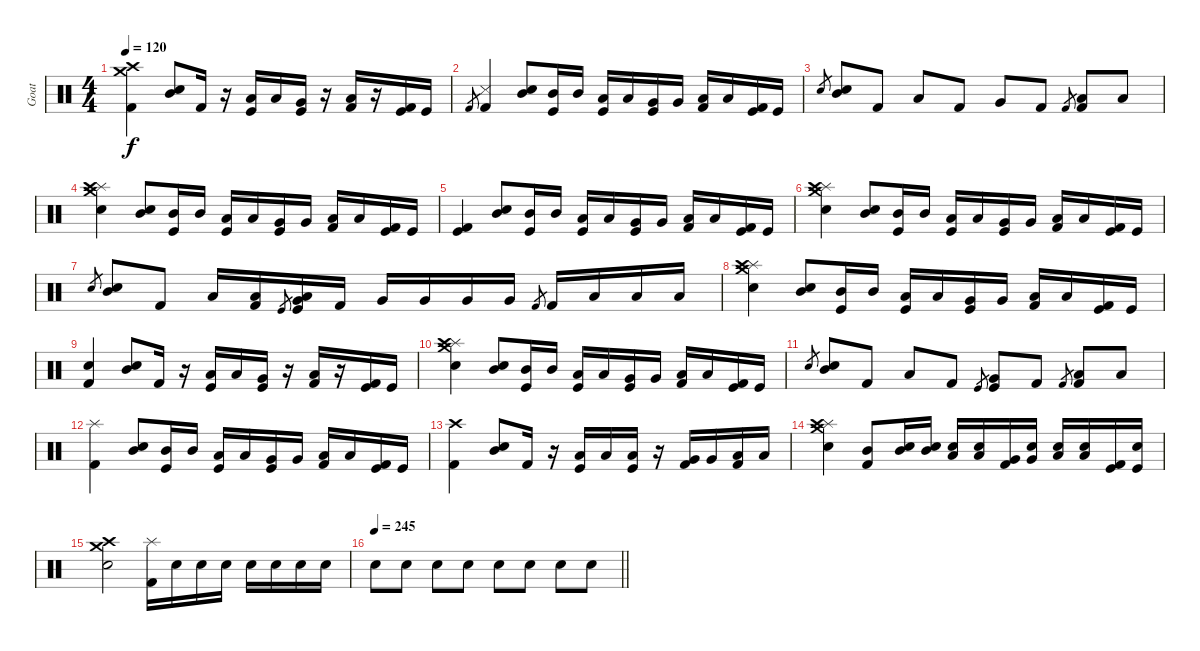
\track ("Goat" "Goat") {instrument percussion}
\staff {score}
\articulation defaults
\ts (4 4)
\tempo 120
\clef neutral
\ks c
("Kick (hit) 2" "Crash high (hit)" "Crash medium (hit)").4{dy f} ("Snare (hit) 2" "Mid Tom (hit)").8 "Kick (hit) 2".16 r.16 ("Kick (hit)" "Low Tom (hit)").16 "Low Tom (hit)".16 ("Kick (hit)" "Very Low Tom (hit)").16 r.16 ("Kick (hit) 2" "Low Floor Tom (hit)").16 r.16 ("Kick (hit) 2" "Kick (hit)").16 "Kick (hit)".16 |
"Kick (hit) 2".8{gr} ("Kick (hit) 2" "Snare (side stick) 3").4 ("Snare (hit) 2" "Mid Tom (hit)").8 ("Kick (hit)" "Mid Tom (hit)").16 "Mid Tom (hit)".16 ("Kick (hit)" "Low Tom (hit)").16 "Low Tom (hit)".16 ("Kick (hit)" "Very Low Tom (hit)").16 "Very Low Tom (hit)".16 ("Kick (hit) 2" "Low Floor Tom (hit)").16 "Low Floor Tom (hit)".16 ("Kick (hit) 2" "Kick (hit)").16 "Kick (hit)".16 |
"Snare (hit) 2".8{gr} ("Snare (hit) 2" "Mid Tom (hit)").8 "Kick (hit) 2".8 "Low Tom (hit)".8 "Kick (hit) 2".8 "Very Low Tom (hit)".8 "Kick (hit) 2".8 "Kick (hit) 2".8{gr} ("Kick (hit) 2" "Low Floor Tom (hit)").8 "Low Floor Tom (hit)".8 |
("Splash (hit)" "Crash medium (hit)" "Crash high (hit)" "Snare (hit) 2").4 ("Snare (hit) 2" "Mid Tom (hit)").8 ("Kick (hit)" "Mid Tom (hit)").16 "Mid Tom (hit)".16 ("Kick (hit)" "Low Tom (hit)").16 "Low Tom (hit)".16 ("Kick (hit)" "Very Low Tom (hit)").16 "Very Low Tom (hit)".16 ("Kick (hit) 2" "Low Floor Tom (hit)").16 "Low Floor Tom (hit)".16 ("Kick (hit) 2" "Kick (hit)").16 "Kick (hit)".16 |
("Kick (hit)" "Kick (hit) 2").4 ("Snare (hit) 2" "Mid Tom (hit)").8 ("Kick (hit)" "Mid Tom (hit)").16 "Mid Tom (hit)".16 ("Kick (hit)" "Low Tom (hit)").16 "Low Tom (hit)".16 ("Kick (hit)" "Very Low Tom (hit)").16 "Very Low Tom (hit)".16 ("Kick (hit) 2" "Low Floor Tom (hit)").16 "Low Floor Tom (hit)".16 ("Kick (hit) 2" "Kick (hit)").16 "Kick (hit)".16 |
("Splash (hit)" "Crash medium (hit)" "Crash high (hit)" "Snare (hit) 2").4 ("Snare (hit) 2" "Mid Tom (hit)").8 ("Kick (hit)" "Mid Tom (hit)").16 "Mid Tom (hit)".16 ("Kick (hit)" "Low Tom (hit)").16 "Low Tom (hit)".16 ("Kick (hit)" "Very Low Tom (hit)").16 "Very Low Tom (hit)".16 ("Kick (hit) 2" "Low Floor Tom (hit)").16 "Low Floor Tom (hit)".16 ("Kick (hit) 2" "Kick (hit)").16 "Kick (hit)".16 |
"Snare (hit) 2".8{gr} ("Snare (hit) 2" "Mid Tom (hit)").8 "Kick (hit) 2".8 "Low Tom (hit)".16 ("Low Tom (hit)" "Kick (hit) 2").16 "Kick (hit)".8{gr} ("Kick (hit)" "Low Tom (hit)" "Very Low Tom (hit)").16 "Kick (hit) 2".16 "Very Low Tom (hit)".16 "Very Low Tom (hit)".16 "Very Low Tom (hit)".16 "Very Low Tom (hit)".16 "Kick (hit) 2".8{gr} "Kick (hit) 2".16 "Low Floor Tom (hit)".16 "Low Floor Tom (hit)".16 "Low Floor Tom (hit)".16 |
("Splash (hit)" "Crash medium (hit)" "Crash high (hit)" "Snare (hit) 2").4 ("Snare (hit) 2" "Mid Tom (hit)").8 ("Kick (hit)" "Mid Tom (hit)").16 "Mid Tom (hit)".16 ("Kick (hit)" "Low Tom (hit)").16 "Low Tom (hit)".16 ("Kick (hit)" "Very Low Tom (hit)").16 "Very Low Tom (hit)".16 ("Kick (hit) 2" "Low Floor Tom (hit)").16 "Low Floor Tom (hit)".16 ("Kick (hit) 2" "Kick (hit)").16 "Kick (hit)".16 |
("Kick (hit) 2" "Snare (hit) 2").4 ("Snare (hit) 2" "Mid Tom (hit)").8 "Kick (hit) 2".16 r.16 ("Kick (hit)" "Low Tom (hit)").16 "Low Tom (hit)".16 ("Kick (hit)" "Very Low Tom (hit)").16 r.16 ("Kick (hit) 2" "Low Floor Tom (hit)").16 r.16 ("Kick (hit) 2" "Kick (hit)").16 "Kick (hit)".16 |
("Splash (hit)" "Crash medium (hit)" "Crash high (hit)" "Snare (hit) 2").4 ("Snare (hit) 2" "Mid Tom (hit)").8 ("Kick (hit)" "Mid Tom (hit)").16 "Mid Tom (hit)".16 ("Kick (hit)" "Low Tom (hit)").16 "Low Tom (hit)".16 ("Kick (hit)" "Very Low Tom (hit)").16 "Very Low Tom (hit)".16 ("Kick (hit) 2" "Low Floor Tom (hit)").16 "Low Floor Tom (hit)".16 ("Kick (hit) 2" "Kick (hit)").16 "Kick (hit)".16 |
"Snare (hit) 2".8{gr} ("Snare (hit) 2" "Mid Tom (hit)").8 "Kick (hit) 2".8 "Low Tom (hit)".8 "Kick (hit) 2".8 "Kick (hit)".8{gr} ("Kick (hit)" "Very Low Tom (hit)").8 "Kick (hit) 2".8 "Kick (hit) 2".8{gr} ("Kick (hit) 2" "Low Floor Tom (hit)").8 "Low Floor Tom (hit)".8 |
("Splash (hit)" "Kick (hit) 2").4 ("Snare (hit) 2" "Mid Tom (hit)").8 ("Kick (hit)" "Mid Tom (hit)").16 "Mid Tom (hit)".16 ("Kick (hit)" "Low Tom (hit)").16 "Low Tom (hit)".16 ("Kick (hit)" "Very Low Tom (hit)").16 "Very Low Tom (hit)".16 ("Kick (hit) 2" "Low Floor Tom (hit)").16 "Low Floor Tom (hit)".16 ("Kick (hit) 2" "Kick (hit)").16 "Kick (hit)".16 |
("Kick (hit) 2" "Crash high (hit)").4 ("Snare (hit) 2" "Mid Tom (hit)").8 "Kick (hit) 2".16 r.16 ("Kick (hit)" "Low Tom (hit)").16 "Low Tom (hit)".16 ("Kick (hit)" "Low Tom (hit)").16 r.16 ("Kick (hit) 2" "Very Low Tom (hit)").16 "Very Low Tom (hit)".16 ("Kick (hit) 2" "Low Floor Tom (hit)").16 "Low Floor Tom (hit)".16 |
("Splash (hit)" "Crash medium (hit)" "Crash high (hit)" "Snare (hit) 2").4 ("Kick (hit) 2" "Mid Tom (hit)").8 ("Snare (hit) 2" "Mid Tom (hit)").16 ("Snare (hit) 2" "Mid Tom (hit)").16 ("Snare (hit) 2" "Low Tom (hit)").16 ("Snare (hit) 2" "Low Tom (hit)").16 ("Kick (hit) 2" "Very Low Tom (hit)").16 ("Snare (hit) 2" "Very Low Tom (hit)").16 ("Snare (hit) 2" "Low Floor Tom (hit)").16 ("Snare (hit) 2" "Low Floor Tom (hit)").16 ("Kick (hit) 2" "Kick (hit)").16 ("Snare (hit) 2" "Kick (hit)").16 |
("Snare (hit) 2" "Crash medium (hit)" "Crash high (hit)").2 ("Splash (hit)" "Kick (hit) 2").16 "Snare (hit) 2".16 "Snare (hit) 2".16 "Snare (hit) 2".16 "Snare (hit) 2".16 "Snare (hit) 2".16 "Snare (hit) 2".16 "Snare (hit) 2".16 |
\tempo 245
\barLineRight lightlight "Snare (hit) 2".8 "Snare (hit) 2".8 "Snare (hit) 2".8 "Snare (hit) 2".8 "Snare (hit) 2".8 "Snare (hit) 2".8 "Snare (hit) 2".8 "Snare (hit) 2".8
